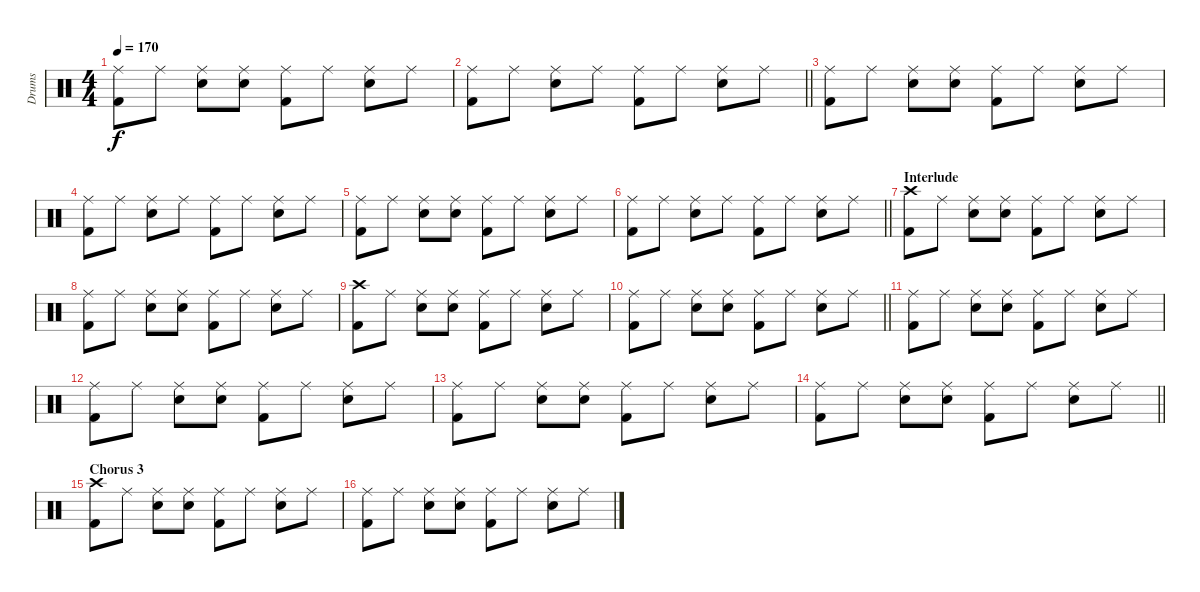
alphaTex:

\track ("Drums" "Drums") {instrument percussion}
\staff {score}
\articulation defaults
\ts (4 4)
\tempo 170
\clef neutral
\ks c
("Ride (middle)" "Kick (hit) 2").8{dy f} "Ride (middle)".8 ("Ride (middle)" "Snare (hit) 2").8 ("Ride (middle)" "Snare (hit) 2").8 ("Ride (middle)" "Kick (hit) 2").8 "Ride (middle)".8 ("Ride (middle)" "Snare (hit) 2").8 "Ride (middle)".8 |
\barLineRight lightlight
("Ride (middle)" "Kick (hit) 2").8 "Ride (middle)".8 ("Ride (middle)" "Snare (hit) 2").8 "Ride (middle)".8 ("Ride (middle)" "Kick (hit) 2").8 "Ride (middle)".8 ("Ride (middle)" "Snare (hit) 2").8 "Ride (middle)".8 |
("Ride (middle)" "Kick (hit) 2").8 "Ride (middle)".8 ("Ride (middle)" "Snare (hit) 2").8 ("Ride (middle)" "Snare (hit) 2").8 ("Ride (middle)" "Kick (hit) 2").8 "Ride (middle)".8 ("Ride (middle)" "Snare (hit) 2").8 "Ride (middle)".8 |
("Ride (middle)" "Kick (hit) 2").8 "Ride (middle)".8 ("Ride (middle)" "Snare (hit) 2").8 "Ride (middle)".8 ("Ride (middle)" "Kick (hit) 2").8 "Ride (middle)".8 ("Ride (middle)" "Snare (hit) 2").8 "Ride (middle)".8 |
("Ride (middle)" "Kick (hit) 2").8 "Ride (middle)".8 ("Ride (middle)" "Snare (hit) 2").8 ("Ride (middle)" "Snare (hit) 2").8 ("Ride (middle)" "Kick (hit) 2").8 "Ride (middle)".8 ("Ride (middle)" "Snare (hit) 2").8 "Ride (middle)".8 |
\barLineRight lightlight
("Ride (middle)" "Kick (hit) 2").8 "Ride (middle)".8 ("Ride (middle)" "Snare (hit) 2").8 "Ride (middle)".8 ("Ride (middle)" "Kick (hit) 2").8 "Ride (middle)".8 ("Ride (middle)" "Snare (hit) 2").8 "Ride (middle)".8 |
\section ("" "Interlude")
("Crash high (hit)" "Kick (hit) 2").8 "Ride (middle)".8 ("Ride (middle)" "Snare (hit) 2").8 ("Ride (middle)" "Snare (hit) 2").8 ("Ride (middle)" "Kick (hit) 2").8 "Ride (middle)".8 ("Ride (middle)" "Snare (hit) 2").8 "Ride (middle)".8 |
("Ride (middle)" "Kick (hit) 2").8 "Ride (middle)".8 ("Ride (middle)" "Snare (hit) 2").8 ("Ride (middle)" "Snare (hit) 2").8 ("Ride (middle)" "Kick (hit) 2").8 "Ride (middle)".8 ("Ride (middle)" "Snare (hit) 2").8 "Ride (middle)".8 |
("Crash high (hit)" "Kick (hit) 2").8 "Ride (middle)".8 ("Ride (middle)" "Snare (hit) 2").8 ("Ride (middle)" "Snare (hit) 2").8 ("Ride (middle)" "Kick (hit) 2").8 "Ride (middle)".8 ("Ride (middle)" "Snare (hit) 2").8 "Ride (middle)".8 |
\barLineRight lightlight
("Ride (middle)" "Kick (hit) 2").8 "Ride (middle)".8 ("Ride (middle)" "Snare (hit) 2").8 ("Ride (middle)" "Snare (hit) 2").8 ("Ride (middle)" "Kick (hit) 2").8 "Ride (middle)".8 ("Ride (middle)" "Snare (hit) 2").8 "Ride (middle)".8 |
("Ride (middle)" "Kick (hit) 2").8 "Ride (middle)".8 ("Ride (middle)" "Snare (hit) 2").8 ("Ride (middle)" "Snare (hit) 2").8 ("Ride (middle)" "Kick (hit) 2").8 "Ride (middle)".8 ("Ride (middle)" "Snare (hit) 2").8 "Ride (middle)".8 |
("Ride (middle)" "Kick (hit) 2").8 "Ride (middle)".8 ("Ride (middle)" "Snare (hit) 2").8 ("Ride (middle)" "Snare (hit) 2").8 ("Ride (middle)" "Kick (hit) 2").8 "Ride (middle)".8 ("Ride (middle)" "Snare (hit) 2").8 "Ride (middle)".8 |
("Ride (middle)" "Kick (hit) 2").8 "Ride (middle)".8 ("Ride (middle)" "Snare (hit) 2").8 ("Ride (middle)" "Snare (hit) 2").8 ("Ride (middle)" "Kick (hit) 2").8 "Ride (middle)".8 ("Ride (middle)" "Snare (hit) 2").8 "Ride (middle)".8 |
\barLineRight lightlight
("Ride (middle)" "Kick (hit) 2").8 "Ride (middle)".8 ("Ride (middle)" "Snare (hit) 2").8 ("Ride (middle)" "Snare (hit) 2").8 ("Ride (middle)" "Kick (hit) 2").8 "Ride (middle)".8 ("Ride (middle)" "Snare (hit) 2").8 "Ride (middle)".8 |
\section ("" "Chorus 3")
("Crash high (hit)" "Kick (hit) 2").8 "Ride (middle)".8 ("Ride (middle)" "Snare (hit) 2").8 ("Ride (middle)" "Snare (hit) 2").8 ("Ride (middle)" "Kick (hit) 2").8 "Ride (middle)".8 ("Ride (middle)" "Snare (hit) 2").8 "Ride (middle)".8 |
("Ride (middle)" "Kick (hit) 2").8 "Ride (middle)".8 ("Ride (middle)" "Snare (hit) 2").8 ("Ride (middle)" "Snare (hit) 2").8 ("Ride (middle)" "Kick (hit) 2").8 "Ride (middle)".8 ("Ride (middle)" "Snare (hit) 2").8 "Ride (middle)".8
